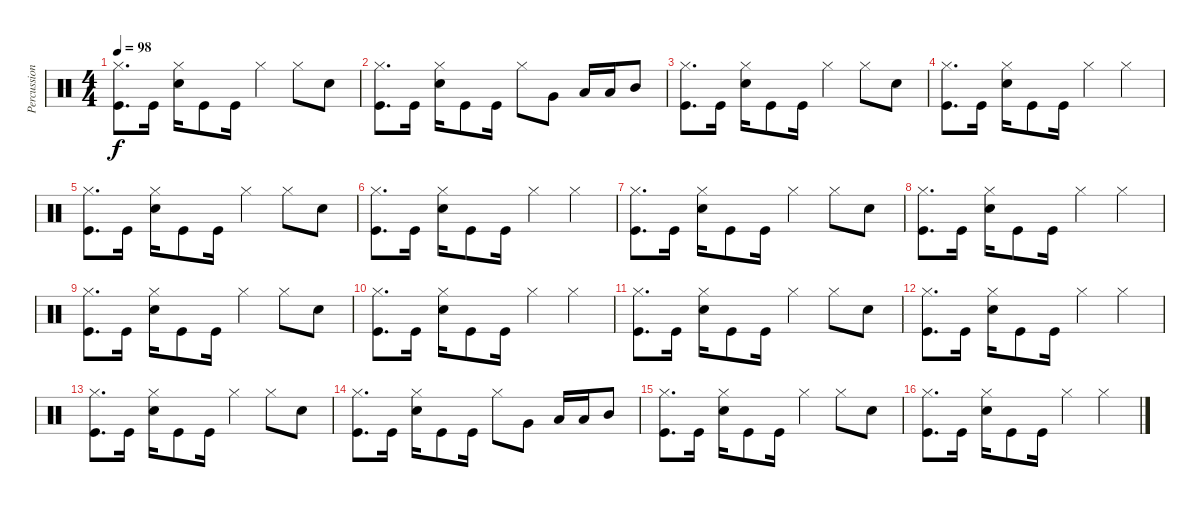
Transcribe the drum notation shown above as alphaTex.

\track ("Percussioni" "Percussion") {instrument percussion}
\staff {score}
\articulation defaults
\ts (4 4)
\tempo 98
\clef neutral
\ks c
("Kick (hit)" "Hi-Hat (closed)").8{d dy f} "Kick (hit)".16 ("Snare (hit) 2" "Hi-Hat (closed)").16 "Kick (hit)".8 "Kick (hit)".16 "Hi-Hat (closed)".4 "Hi-Hat (closed)".8 "Snare (hit) 2".8 |
("Kick (hit)" "Hi-Hat (closed)").8{d} "Kick (hit)".16 ("Snare (hit) 2" "Hi-Hat (closed)").16 "Kick (hit)".8 "Kick (hit)".16 "Hi-Hat (closed)".8 "Very Low Tom (hit)".8 "Low Tom (hit)".16 "Low Tom (hit)".16 "Mid Tom (hit)".8 |
("Kick (hit)" "Hi-Hat (closed)").8{d} "Kick (hit)".16 ("Snare (hit) 2" "Hi-Hat (closed)").16 "Kick (hit)".8 "Kick (hit)".16 "Hi-Hat (closed)".4 "Hi-Hat (closed)".8 "Snare (hit) 2".8 |
("Kick (hit)" "Hi-Hat (closed)").8{d} "Kick (hit)".16 ("Snare (hit) 2" "Hi-Hat (closed)").16 "Kick (hit)".8 "Kick (hit)".16 "Hi-Hat (closed)".4 "Hi-Hat (closed)".4 |
("Kick (hit)" "Hi-Hat (closed)").8{d} "Kick (hit)".16 ("Snare (hit) 2" "Hi-Hat (closed)").16 "Kick (hit)".8 "Kick (hit)".16 "Hi-Hat (closed)".4 "Hi-Hat (closed)".8 "Snare (hit) 2".8 |
("Kick (hit)" "Hi-Hat (closed)").8{d} "Kick (hit)".16 ("Snare (hit) 2" "Hi-Hat (closed)").16 "Kick (hit)".8 "Kick (hit)".16 "Hi-Hat (closed)".4 "Hi-Hat (closed)".4 |
("Kick (hit)" "Hi-Hat (closed)").8{d} "Kick (hit)".16 ("Snare (hit) 2" "Hi-Hat (closed)").16 "Kick (hit)".8 "Kick (hit)".16 "Hi-Hat (closed)".4 "Hi-Hat (closed)".8 "Snare (hit) 2".8 |
("Kick (hit)" "Hi-Hat (closed)").8{d} "Kick (hit)".16 ("Snare (hit) 2" "Hi-Hat (closed)").16 "Kick (hit)".8 "Kick (hit)".16 "Hi-Hat (closed)".4 "Hi-Hat (closed)".4 |
("Kick (hit)" "Hi-Hat (closed)").8{d} "Kick (hit)".16 ("Snare (hit) 2" "Hi-Hat (closed)").16 "Kick (hit)".8 "Kick (hit)".16 "Hi-Hat (closed)".4 "Hi-Hat (closed)".8 "Snare (hit) 2".8 |
("Kick (hit)" "Hi-Hat (closed)").8{d} "Kick (hit)".16 ("Snare (hit) 2" "Hi-Hat (closed)").16 "Kick (hit)".8 "Kick (hit)".16 "Hi-Hat (closed)".4 "Hi-Hat (closed)".4 |
("Kick (hit)" "Hi-Hat (closed)").8{d} "Kick (hit)".16 ("Snare (hit) 2" "Hi-Hat (closed)").16 "Kick (hit)".8 "Kick (hit)".16 "Hi-Hat (closed)".4 "Hi-Hat (closed)".8 "Snare (hit) 2".8 |
("Kick (hit)" "Hi-Hat (closed)").8{d} "Kick (hit)".16 ("Snare (hit) 2" "Hi-Hat (closed)").16 "Kick (hit)".8 "Kick (hit)".16 "Hi-Hat (closed)".4 "Hi-Hat (closed)".4 |
("Kick (hit)" "Hi-Hat (closed)").8{d} "Kick (hit)".16 ("Snare (hit) 2" "Hi-Hat (closed)").16 "Kick (hit)".8 "Kick (hit)".16 "Hi-Hat (closed)".4 "Hi-Hat (closed)".8 "Snare (hit) 2".8 |
("Kick (hit)" "Hi-Hat (closed)").8{d} "Kick (hit)".16 ("Snare (hit) 2" "Hi-Hat (closed)").16 "Kick (hit)".8 "Kick (hit)".16 "Hi-Hat (closed)".8 "Very Low Tom (hit)".8 "Low Tom (hit)".16 "Low Tom (hit)".16 "Mid Tom (hit)".8 |
("Kick (hit)" "Hi-Hat (closed)").8{d} "Kick (hit)".16 ("Snare (hit) 2" "Hi-Hat (closed)").16 "Kick (hit)".8 "Kick (hit)".16 "Hi-Hat (closed)".4 "Hi-Hat (closed)".8 "Snare (hit) 2".8 |
("Kick (hit)" "Hi-Hat (closed)").8{d} "Kick (hit)".16 ("Snare (hit) 2" "Hi-Hat (closed)").16 "Kick (hit)".8 "Kick (hit)".16 "Hi-Hat (closed)".4 "Hi-Hat (closed)".4
